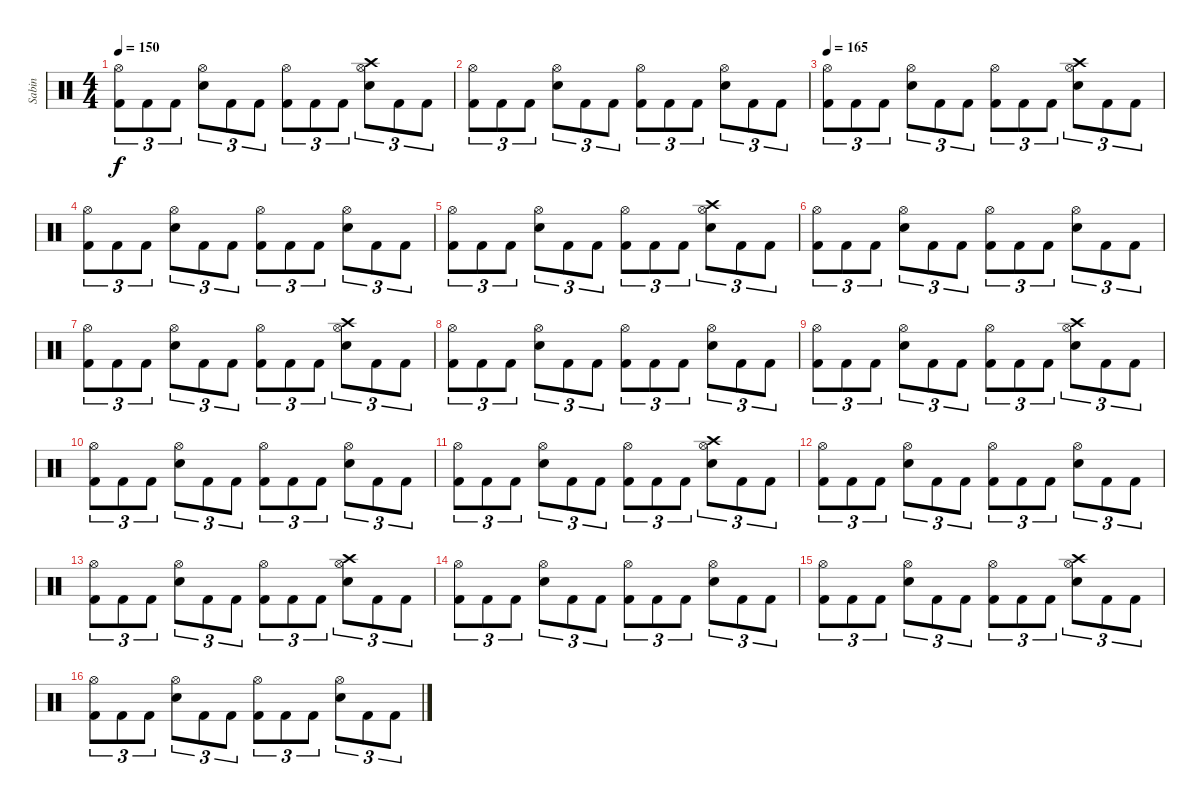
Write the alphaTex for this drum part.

\track ("Sabin" "Sabin") {instrument percussion}
\staff {score}
\articulation defaults
\ts (4 4)
\tempo 150
\clef neutral
\ks c
("Hi-Hat (open)" "Kick (hit) 2").8{tu (3 2) dy f} "Kick (hit) 2".8{tu (3 2)} "Kick (hit) 2".8{tu (3 2)} ("Snare (hit) 2" "Hi-Hat (open)").8{tu (3 2)} "Kick (hit) 2".8{tu (3 2)} "Kick (hit) 2".8{tu (3 2)} ("Hi-Hat (open)" "Kick (hit) 2").8{tu (3 2)} "Kick (hit) 2".8{tu (3 2)} "Kick (hit) 2".8{tu (3 2)} ("Crash high (hit)" "Snare (hit) 2" "Hi-Hat (open)").8{tu (3 2)} "Kick (hit) 2".8{tu (3 2)} "Kick (hit) 2".8{tu (3 2)} |
("Hi-Hat (open)" "Kick (hit) 2").8{tu (3 2)} "Kick (hit) 2".8{tu (3 2)} "Kick (hit) 2".8{tu (3 2)} ("Snare (hit) 2" "Hi-Hat (open)").8{tu (3 2)} "Kick (hit) 2".8{tu (3 2)} "Kick (hit) 2".8{tu (3 2)} ("Hi-Hat (open)" "Kick (hit) 2").8{tu (3 2)} "Kick (hit) 2".8{tu (3 2)} "Kick (hit) 2".8{tu (3 2)} ("Snare (hit) 2" "Hi-Hat (open)").8{tu (3 2)} "Kick (hit) 2".8{tu (3 2)} "Kick (hit) 2".8{tu (3 2)} |
\tempo 165
("Hi-Hat (open)" "Kick (hit) 2").8{tu (3 2)} "Kick (hit) 2".8{tu (3 2)} "Kick (hit) 2".8{tu (3 2)} ("Snare (hit) 2" "Hi-Hat (open)").8{tu (3 2)} "Kick (hit) 2".8{tu (3 2)} "Kick (hit) 2".8{tu (3 2)} ("Hi-Hat (open)" "Kick (hit) 2").8{tu (3 2)} "Kick (hit) 2".8{tu (3 2)} "Kick (hit) 2".8{tu (3 2)} ("Crash high (hit)" "Snare (hit) 2" "Hi-Hat (open)").8{tu (3 2)} "Kick (hit) 2".8{tu (3 2)} "Kick (hit) 2".8{tu (3 2)} |
("Hi-Hat (open)" "Kick (hit) 2").8{tu (3 2)} "Kick (hit) 2".8{tu (3 2)} "Kick (hit) 2".8{tu (3 2)} ("Snare (hit) 2" "Hi-Hat (open)").8{tu (3 2)} "Kick (hit) 2".8{tu (3 2)} "Kick (hit) 2".8{tu (3 2)} ("Hi-Hat (open)" "Kick (hit) 2").8{tu (3 2)} "Kick (hit) 2".8{tu (3 2)} "Kick (hit) 2".8{tu (3 2)} ("Snare (hit) 2" "Hi-Hat (open)").8{tu (3 2)} "Kick (hit) 2".8{tu (3 2)} "Kick (hit) 2".8{tu (3 2)} |
("Hi-Hat (open)" "Kick (hit) 2").8{tu (3 2)} "Kick (hit) 2".8{tu (3 2)} "Kick (hit) 2".8{tu (3 2)} ("Snare (hit) 2" "Hi-Hat (open)").8{tu (3 2)} "Kick (hit) 2".8{tu (3 2)} "Kick (hit) 2".8{tu (3 2)} ("Hi-Hat (open)" "Kick (hit) 2").8{tu (3 2)} "Kick (hit) 2".8{tu (3 2)} "Kick (hit) 2".8{tu (3 2)} ("Crash high (hit)" "Snare (hit) 2" "Hi-Hat (open)").8{tu (3 2)} "Kick (hit) 2".8{tu (3 2)} "Kick (hit) 2".8{tu (3 2)} |
("Hi-Hat (open)" "Kick (hit) 2").8{tu (3 2)} "Kick (hit) 2".8{tu (3 2)} "Kick (hit) 2".8{tu (3 2)} ("Snare (hit) 2" "Hi-Hat (open)").8{tu (3 2)} "Kick (hit) 2".8{tu (3 2)} "Kick (hit) 2".8{tu (3 2)} ("Hi-Hat (open)" "Kick (hit) 2").8{tu (3 2)} "Kick (hit) 2".8{tu (3 2)} "Kick (hit) 2".8{tu (3 2)} ("Snare (hit) 2" "Hi-Hat (open)").8{tu (3 2)} "Kick (hit) 2".8{tu (3 2)} "Kick (hit) 2".8{tu (3 2)} |
("Hi-Hat (open)" "Kick (hit) 2").8{tu (3 2)} "Kick (hit) 2".8{tu (3 2)} "Kick (hit) 2".8{tu (3 2)} ("Snare (hit) 2" "Hi-Hat (open)").8{tu (3 2)} "Kick (hit) 2".8{tu (3 2)} "Kick (hit) 2".8{tu (3 2)} ("Hi-Hat (open)" "Kick (hit) 2").8{tu (3 2)} "Kick (hit) 2".8{tu (3 2)} "Kick (hit) 2".8{tu (3 2)} ("Crash high (hit)" "Snare (hit) 2" "Hi-Hat (open)").8{tu (3 2)} "Kick (hit) 2".8{tu (3 2)} "Kick (hit) 2".8{tu (3 2)} |
("Hi-Hat (open)" "Kick (hit) 2").8{tu (3 2)} "Kick (hit) 2".8{tu (3 2)} "Kick (hit) 2".8{tu (3 2)} ("Snare (hit) 2" "Hi-Hat (open)").8{tu (3 2)} "Kick (hit) 2".8{tu (3 2)} "Kick (hit) 2".8{tu (3 2)} ("Hi-Hat (open)" "Kick (hit) 2").8{tu (3 2)} "Kick (hit) 2".8{tu (3 2)} "Kick (hit) 2".8{tu (3 2)} ("Snare (hit) 2" "Hi-Hat (open)").8{tu (3 2)} "Kick (hit) 2".8{tu (3 2)} "Kick (hit) 2".8{tu (3 2)} |
("Hi-Hat (open)" "Kick (hit) 2").8{tu (3 2)} "Kick (hit) 2".8{tu (3 2)} "Kick (hit) 2".8{tu (3 2)} ("Snare (hit) 2" "Hi-Hat (open)").8{tu (3 2)} "Kick (hit) 2".8{tu (3 2)} "Kick (hit) 2".8{tu (3 2)} ("Hi-Hat (open)" "Kick (hit) 2").8{tu (3 2)} "Kick (hit) 2".8{tu (3 2)} "Kick (hit) 2".8{tu (3 2)} ("Crash high (hit)" "Snare (hit) 2" "Hi-Hat (open)").8{tu (3 2)} "Kick (hit) 2".8{tu (3 2)} "Kick (hit) 2".8{tu (3 2)} |
("Hi-Hat (open)" "Kick (hit) 2").8{tu (3 2)} "Kick (hit) 2".8{tu (3 2)} "Kick (hit) 2".8{tu (3 2)} ("Snare (hit) 2" "Hi-Hat (open)").8{tu (3 2)} "Kick (hit) 2".8{tu (3 2)} "Kick (hit) 2".8{tu (3 2)} ("Hi-Hat (open)" "Kick (hit) 2").8{tu (3 2)} "Kick (hit) 2".8{tu (3 2)} "Kick (hit) 2".8{tu (3 2)} ("Snare (hit) 2" "Hi-Hat (open)").8{tu (3 2)} "Kick (hit) 2".8{tu (3 2)} "Kick (hit) 2".8{tu (3 2)} |
("Hi-Hat (open)" "Kick (hit) 2").8{tu (3 2)} "Kick (hit) 2".8{tu (3 2)} "Kick (hit) 2".8{tu (3 2)} ("Snare (hit) 2" "Hi-Hat (open)").8{tu (3 2)} "Kick (hit) 2".8{tu (3 2)} "Kick (hit) 2".8{tu (3 2)} ("Hi-Hat (open)" "Kick (hit) 2").8{tu (3 2)} "Kick (hit) 2".8{tu (3 2)} "Kick (hit) 2".8{tu (3 2)} ("Crash high (hit)" "Snare (hit) 2" "Hi-Hat (open)").8{tu (3 2)} "Kick (hit) 2".8{tu (3 2)} "Kick (hit) 2".8{tu (3 2)} |
("Hi-Hat (open)" "Kick (hit) 2").8{tu (3 2)} "Kick (hit) 2".8{tu (3 2)} "Kick (hit) 2".8{tu (3 2)} ("Snare (hit) 2" "Hi-Hat (open)").8{tu (3 2)} "Kick (hit) 2".8{tu (3 2)} "Kick (hit) 2".8{tu (3 2)} ("Hi-Hat (open)" "Kick (hit) 2").8{tu (3 2)} "Kick (hit) 2".8{tu (3 2)} "Kick (hit) 2".8{tu (3 2)} ("Snare (hit) 2" "Hi-Hat (open)").8{tu (3 2)} "Kick (hit) 2".8{tu (3 2)} "Kick (hit) 2".8{tu (3 2)} |
("Hi-Hat (open)" "Kick (hit) 2").8{tu (3 2)} "Kick (hit) 2".8{tu (3 2)} "Kick (hit) 2".8{tu (3 2)} ("Snare (hit) 2" "Hi-Hat (open)").8{tu (3 2)} "Kick (hit) 2".8{tu (3 2)} "Kick (hit) 2".8{tu (3 2)} ("Hi-Hat (open)" "Kick (hit) 2").8{tu (3 2)} "Kick (hit) 2".8{tu (3 2)} "Kick (hit) 2".8{tu (3 2)} ("Crash high (hit)" "Snare (hit) 2" "Hi-Hat (open)").8{tu (3 2)} "Kick (hit) 2".8{tu (3 2)} "Kick (hit) 2".8{tu (3 2)} |
("Hi-Hat (open)" "Kick (hit) 2").8{tu (3 2)} "Kick (hit) 2".8{tu (3 2)} "Kick (hit) 2".8{tu (3 2)} ("Snare (hit) 2" "Hi-Hat (open)").8{tu (3 2)} "Kick (hit) 2".8{tu (3 2)} "Kick (hit) 2".8{tu (3 2)} ("Hi-Hat (open)" "Kick (hit) 2").8{tu (3 2)} "Kick (hit) 2".8{tu (3 2)} "Kick (hit) 2".8{tu (3 2)} ("Snare (hit) 2" "Hi-Hat (open)").8{tu (3 2)} "Kick (hit) 2".8{tu (3 2)} "Kick (hit) 2".8{tu (3 2)} |
("Hi-Hat (open)" "Kick (hit) 2").8{tu (3 2)} "Kick (hit) 2".8{tu (3 2)} "Kick (hit) 2".8{tu (3 2)} ("Snare (hit) 2" "Hi-Hat (open)").8{tu (3 2)} "Kick (hit) 2".8{tu (3 2)} "Kick (hit) 2".8{tu (3 2)} ("Hi-Hat (open)" "Kick (hit) 2").8{tu (3 2)} "Kick (hit) 2".8{tu (3 2)} "Kick (hit) 2".8{tu (3 2)} ("Crash high (hit)" "Snare (hit) 2" "Hi-Hat (open)").8{tu (3 2)} "Kick (hit) 2".8{tu (3 2)} "Kick (hit) 2".8{tu (3 2)} |
("Hi-Hat (open)" "Kick (hit) 2").8{tu (3 2)} "Kick (hit) 2".8{tu (3 2)} "Kick (hit) 2".8{tu (3 2)} ("Snare (hit) 2" "Hi-Hat (open)").8{tu (3 2)} "Kick (hit) 2".8{tu (3 2)} "Kick (hit) 2".8{tu (3 2)} ("Hi-Hat (open)" "Kick (hit) 2").8{tu (3 2)} "Kick (hit) 2".8{tu (3 2)} "Kick (hit) 2".8{tu (3 2)} ("Snare (hit) 2" "Hi-Hat (open)").8{tu (3 2)} "Kick (hit) 2".8{tu (3 2)} "Kick (hit) 2".8{tu (3 2)}
